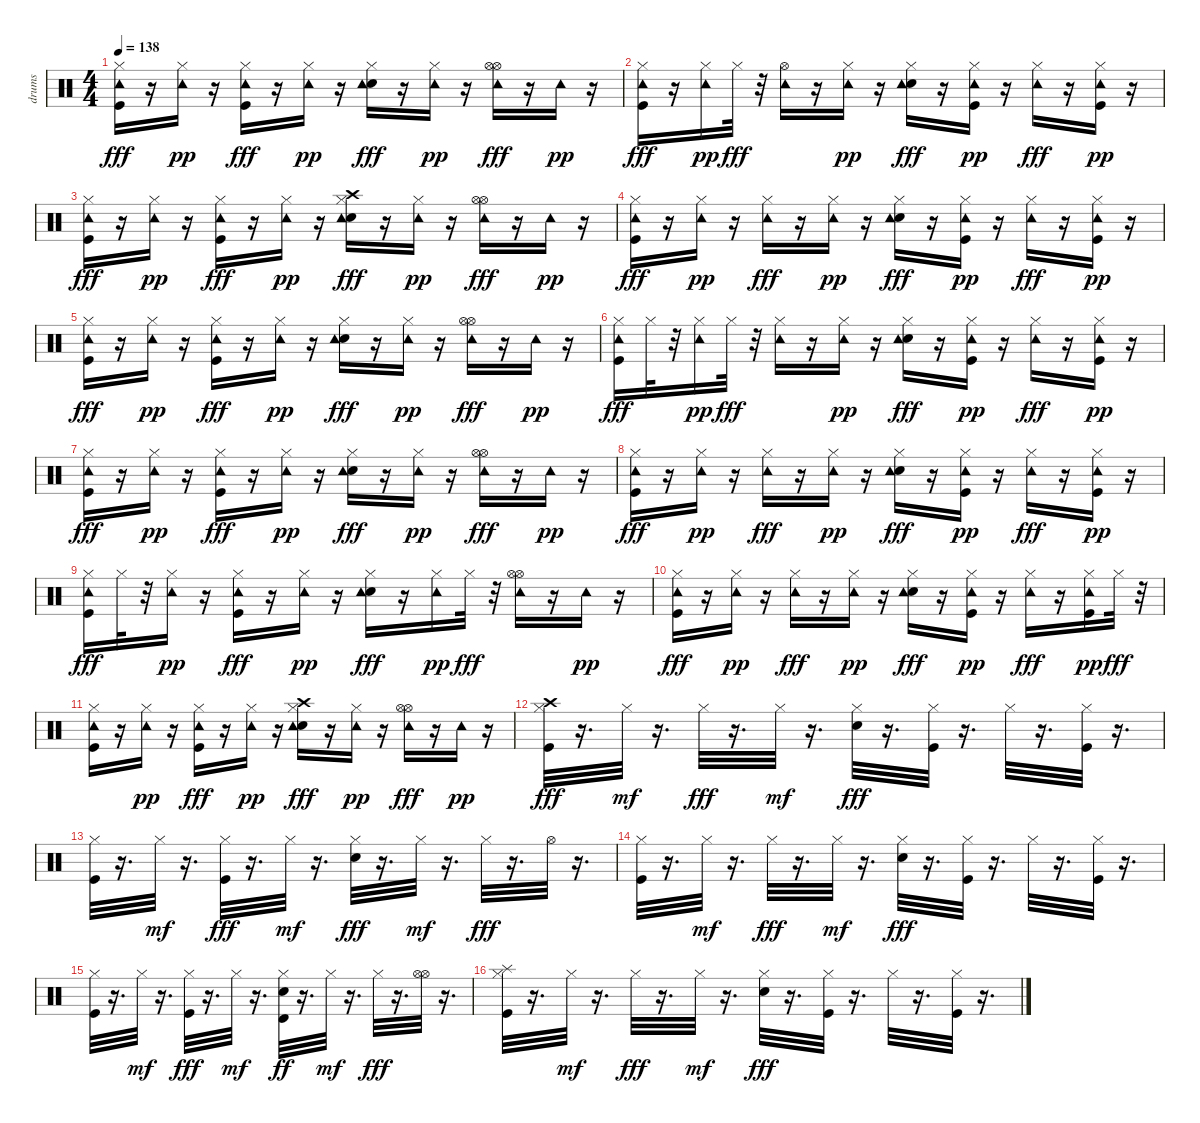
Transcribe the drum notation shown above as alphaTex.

\track ("drums" "drums") {instrument percussion}
\staff {score}
\articulation defaults
\ts (4 4)
\tempo 138
\clef neutral
\ks c
("Hi-Hat (closed)" "Kick (hit)" "Tambourine (hit)").16{dy fff} r.16 ("Hi-Hat (closed)" "Tambourine (hit)").16{dy pp} r.16 ("Hi-Hat (closed)" "Kick (hit)" "Tambourine (hit)").16{dy fff} r.16 ("Hi-Hat (closed)" "Tambourine (hit)").16{dy pp} r.16 ("Metronome (bell)" "Hi-Hat (closed)" "Tambourine (hit)").16{dy fff} r.16 ("Hi-Hat (closed)" "Tambourine (hit)").16{dy pp} r.16 ("Hi-Hat (open)" "Hi-Hat (open)" "Tambourine (hit)").16{dy fff} r.16 "Tambourine (hit)".16{dy pp} r.16 |
("Hi-Hat (closed)" "Kick (hit)" "Tambourine (hit)").16{dy fff} r.16 ("Hi-Hat (closed)" "Tambourine (hit)").16{dy pp} "Hi-Hat (closed)".32{dy fff} r.32 ("Hi-Hat (open)" "Tambourine (hit)").16 r.16 ("Hi-Hat (closed)" "Tambourine (hit)").16{dy pp} r.16 ("Metronome (bell)" "Hi-Hat (closed)" "Tambourine (hit)").16{dy fff} r.16 ("Hi-Hat (closed)" "Kick (hit)" "Tambourine (hit)").16{dy pp} r.16 ("Hi-Hat (closed)" "Tambourine (hit)").16{dy fff} r.16 ("Hi-Hat (closed)" "Kick (hit)" "Tambourine (hit)").16{dy pp} r.16 |
("Hi-Hat (closed)" "Kick (hit)" "Tambourine (hit)").16{dy fff} r.16 ("Hi-Hat (closed)" "Tambourine (hit)").16{dy pp} r.16 ("Hi-Hat (closed)" "Kick (hit)" "Tambourine (hit)").16{dy fff} r.16 ("Hi-Hat (closed)" "Tambourine (hit)").16{dy pp} r.16 ("Crash high (hit)" "Metronome (bell)" "Hi-Hat (closed)" "Tambourine (hit)").16{dy fff} r.16 ("Hi-Hat (closed)" "Tambourine (hit)").16{dy pp} r.16 ("Hi-Hat (open)" "Hi-Hat (open)" "Tambourine (hit)").16{dy fff} r.16 "Tambourine (hit)".16{dy pp} r.16 |
("Hi-Hat (closed)" "Kick (hit)" "Tambourine (hit)").16{dy fff} r.16 ("Hi-Hat (closed)" "Tambourine (hit)").16{dy pp} r.16 ("Hi-Hat (closed)" "Tambourine (hit)").16{dy fff} r.16 ("Hi-Hat (closed)" "Tambourine (hit)").16{dy pp} r.16 ("Metronome (bell)" "Hi-Hat (closed)" "Tambourine (hit)").16{dy fff} r.16 ("Hi-Hat (closed)" "Kick (hit)" "Tambourine (hit)").16{dy pp} r.16 ("Hi-Hat (closed)" "Tambourine (hit)").16{dy fff} r.16 ("Hi-Hat (closed)" "Kick (hit)" "Tambourine (hit)").16{dy pp} r.16 |
("Hi-Hat (closed)" "Kick (hit)" "Tambourine (hit)").16{dy fff} r.16 ("Hi-Hat (closed)" "Tambourine (hit)").16{dy pp} r.16 ("Hi-Hat (closed)" "Kick (hit)" "Tambourine (hit)").16{dy fff} r.16 ("Hi-Hat (closed)" "Tambourine (hit)").16{dy pp} r.16 ("Metronome (bell)" "Hi-Hat (closed)" "Tambourine (hit)").16{dy fff} r.16 ("Hi-Hat (closed)" "Tambourine (hit)").16{dy pp} r.16 ("Hi-Hat (open)" "Hi-Hat (open)" "Tambourine (hit)").16{dy fff} r.16 "Tambourine (hit)".16{dy pp} r.16 |
("Hi-Hat (closed)" "Kick (hit)" "Tambourine (hit)").16{dy fff} "Hi-Hat (closed)".32 r.32 ("Hi-Hat (closed)" "Tambourine (hit)").16{dy pp} "Hi-Hat (closed)".32{dy fff} r.32 ("Hi-Hat (closed)" "Tambourine (hit)").16 r.16 ("Hi-Hat (closed)" "Tambourine (hit)").16{dy pp} r.16 ("Metronome (bell)" "Hi-Hat (closed)" "Tambourine (hit)").16{dy fff} r.16 ("Hi-Hat (closed)" "Kick (hit)" "Tambourine (hit)").16{dy pp} r.16 ("Hi-Hat (closed)" "Tambourine (hit)").16{dy fff} r.16 ("Hi-Hat (closed)" "Kick (hit)" "Tambourine (hit)").16{dy pp} r.16 |
("Hi-Hat (closed)" "Kick (hit)" "Tambourine (hit)").16{dy fff} r.16 ("Hi-Hat (closed)" "Tambourine (hit)").16{dy pp} r.16 ("Hi-Hat (closed)" "Kick (hit)" "Tambourine (hit)").16{dy fff} r.16 ("Hi-Hat (closed)" "Tambourine (hit)").16{dy pp} r.16 ("Metronome (bell)" "Hi-Hat (closed)" "Tambourine (hit)").16{dy fff} r.16 ("Hi-Hat (closed)" "Tambourine (hit)").16{dy pp} r.16 ("Hi-Hat (open)" "Hi-Hat (open)" "Tambourine (hit)").16{dy fff} r.16 "Tambourine (hit)".16{dy pp} r.16 |
("Hi-Hat (closed)" "Kick (hit)" "Tambourine (hit)").16{dy fff} r.16 ("Hi-Hat (closed)" "Tambourine (hit)").16{dy pp} r.16 ("Hi-Hat (closed)" "Tambourine (hit)").16{dy fff} r.16 ("Hi-Hat (closed)" "Tambourine (hit)").16{dy pp} r.16 ("Metronome (bell)" "Hi-Hat (closed)" "Tambourine (hit)").16{dy fff} r.16 ("Hi-Hat (closed)" "Kick (hit)" "Tambourine (hit)").16{dy pp} r.16 ("Hi-Hat (closed)" "Tambourine (hit)").16{dy fff} r.16 ("Hi-Hat (closed)" "Kick (hit)" "Tambourine (hit)").16{dy pp} r.16 |
("Hi-Hat (closed)" "Kick (hit)" "Tambourine (hit)").16{dy fff} "Hi-Hat (closed)".32 r.32 ("Hi-Hat (closed)" "Tambourine (hit)").16{dy pp} r.16 ("Hi-Hat (closed)" "Kick (hit)" "Tambourine (hit)").16{dy fff} r.16 ("Hi-Hat (closed)" "Tambourine (hit)").16{dy pp} r.16 ("Metronome (bell)" "Hi-Hat (closed)" "Tambourine (hit)").16{dy fff} r.16 ("Hi-Hat (closed)" "Tambourine (hit)").16{dy pp} "Hi-Hat (closed)".32{dy fff} r.32 ("Hi-Hat (open)" "Hi-Hat (open)" "Tambourine (hit)").16 r.16 "Tambourine (hit)".16{dy pp} r.16 |
("Hi-Hat (closed)" "Kick (hit)" "Tambourine (hit)").16{dy fff} r.16 ("Hi-Hat (closed)" "Tambourine (hit)").16{dy pp} r.16 ("Hi-Hat (closed)" "Tambourine (hit)").16{dy fff} r.16 ("Hi-Hat (closed)" "Tambourine (hit)").16{dy pp} r.16 ("Metronome (bell)" "Hi-Hat (closed)" "Tambourine (hit)").16{dy fff} r.16 ("Hi-Hat (closed)" "Kick (hit)" "Tambourine (hit)").16{dy pp} r.16 ("Hi-Hat (closed)" "Tambourine (hit)").16{dy fff} r.16 ("Hi-Hat (closed)" "Kick (hit)" "Tambourine (hit)").16{dy pp} "Hi-Hat (closed)".32{dy fff} r.32 |
("Hi-Hat (closed)" "Kick (hit)" "Tambourine (hit)").16 r.16 ("Hi-Hat (closed)" "Tambourine (hit)").16{dy pp} r.16 ("Hi-Hat (closed)" "Kick (hit)" "Tambourine (hit)").16{dy fff} r.16 ("Hi-Hat (closed)" "Tambourine (hit)").16{dy pp} r.16 ("Crash high (hit)" "Metronome (bell)" "Hi-Hat (closed)" "Tambourine (hit)").16{dy fff} r.16 ("Hi-Hat (closed)" "Tambourine (hit)").16{dy pp} r.16 ("Hi-Hat (open)" "Hi-Hat (open)" "Tambourine (hit)").16{dy fff} r.16 "Tambourine (hit)".16{dy pp} r.16 |
("Crash high (hit)" "Hi-Hat (closed)" "Kick (hit)").32{dy fff} r.16{d} "Hi-Hat (closed)".32{dy mf} r.16{d} "Hi-Hat (closed)".32{dy fff} r.16{d} "Hi-Hat (closed)".32{dy mf} r.16{d} ("Metronome (bell)" "Hi-Hat (closed)").32{dy fff} r.16{d} ("Hi-Hat (closed)" "Kick (hit)").32 r.16{d} "Hi-Hat (closed)".32 r.16{d} ("Hi-Hat (closed)" "Kick (hit)").32 r.16{d} |
("Hi-Hat (closed)" "Kick (hit)").32 r.16{d} "Hi-Hat (closed)".32{dy mf} r.16{d} ("Hi-Hat (closed)" "Kick (hit)").32{dy fff} r.16{d} "Hi-Hat (closed)".32{dy mf} r.16{d} ("Metronome (bell)" "Hi-Hat (closed)").32{dy fff} r.16{d} "Hi-Hat (closed)".32{dy mf} r.16{d} "Hi-Hat (closed)".32{dy fff} r.16{d} "Hi-Hat (open)".32 r.16{d} |
("Hi-Hat (closed)" "Kick (hit)").32 r.16{d} "Hi-Hat (closed)".32{dy mf} r.16{d} "Hi-Hat (closed)".32{dy fff} r.16{d} "Hi-Hat (closed)".32{dy mf} r.16{d} ("Metronome (bell)" "Hi-Hat (closed)").32{dy fff} r.16{d} ("Hi-Hat (closed)" "Kick (hit)").32 r.16{d} "Hi-Hat (closed)".32 r.16{d} ("Hi-Hat (closed)" "Kick (hit)").32 r.16{d} |
("Hi-Hat (closed)" "Kick (hit)").32 r.16{d} "Hi-Hat (closed)".32{dy mf} r.16{d} ("Hi-Hat (closed)" "Kick (hit)").32{dy fff} r.16{d} "Hi-Hat (closed)".32{dy mf} r.16{d} ("Timbale high (hit)" "Hi-Hat (closed)" "Metronome (bell)").32{dy ff} r.16{d} "Hi-Hat (closed)".32{dy mf} r.16{d} "Hi-Hat (closed)".32{dy fff} r.16{d} ("Hi-Hat (open)" "Hi-Hat (open)").32 r.16{d} |
("Splash (hit)" "Hi-Hat (closed)" "Kick (hit)").32 r.16{d} "Hi-Hat (closed)".32{dy mf} r.16{d} "Hi-Hat (closed)".32{dy fff} r.16{d} "Hi-Hat (closed)".32{dy mf} r.16{d} ("Metronome (bell)" "Hi-Hat (closed)").32{dy fff} r.16{d} ("Hi-Hat (closed)" "Kick (hit)").32 r.16{d} "Hi-Hat (closed)".32 r.16{d} ("Hi-Hat (closed)" "Kick (hit)").32 r.16{d}
